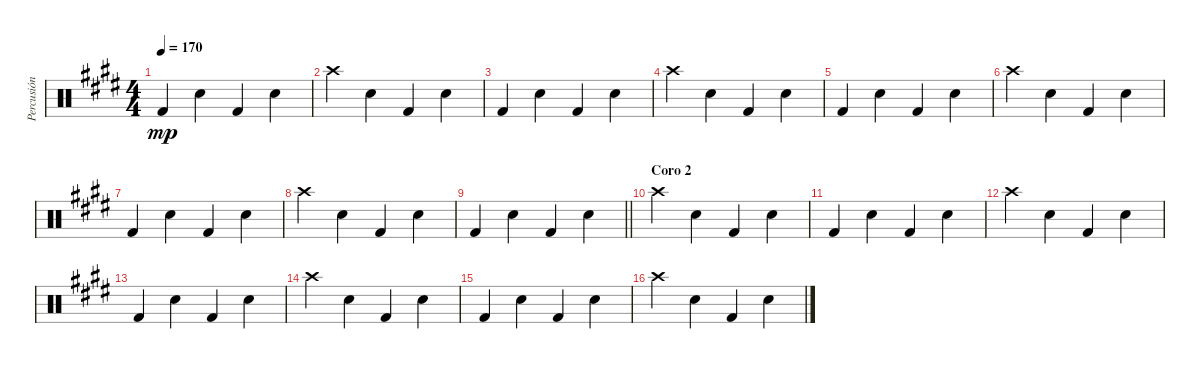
\track ("Percusión" "Percusión") {instrument percussion}
\staff {score}
\articulation defaults
\ts (4 4)
\tempo 170
\clef neutral
\ks e "Kick (hit) 2".4{dy mp} "Snare (hit) 2".4 "Kick (hit) 2".4 "Snare (hit) 2".4
|
"Crash high (hit)".4 "Snare (hit) 2".4 "Kick (hit) 2".4 "Snare (hit) 2".4 |
"Kick (hit) 2".4 "Snare (hit) 2".4 "Kick (hit) 2".4 "Snare (hit) 2".4 |
"Crash high (hit)".4 "Snare (hit) 2".4 "Kick (hit) 2".4 "Snare (hit) 2".4 |
"Kick (hit) 2".4 "Snare (hit) 2".4 "Kick (hit) 2".4 "Snare (hit) 2".4 |
"Crash high (hit)".4 "Snare (hit) 2".4 "Kick (hit) 2".4 "Snare (hit) 2".4 |
"Kick (hit) 2".4 "Snare (hit) 2".4 "Kick (hit) 2".4 "Snare (hit) 2".4 |
"Crash high (hit)".4 "Snare (hit) 2".4 "Kick (hit) 2".4 "Snare (hit) 2".4 |
\barLineRight lightlight "Kick (hit) 2".4 "Snare (hit) 2".4 "Kick (hit) 2".4 "Snare (hit) 2".4
|
\section ("" "Coro 2")
"Crash high (hit)".4 "Snare (hit) 2".4 "Kick (hit) 2".4 "Snare (hit) 2".4 |
"Kick (hit) 2".4 "Snare (hit) 2".4 "Kick (hit) 2".4 "Snare (hit) 2".4 |
"Crash high (hit)".4 "Snare (hit) 2".4 "Kick (hit) 2".4 "Snare (hit) 2".4 |
"Kick (hit) 2".4 "Snare (hit) 2".4 "Kick (hit) 2".4 "Snare (hit) 2".4 |
"Crash high (hit)".4 "Snare (hit) 2".4 "Kick (hit) 2".4 "Snare (hit) 2".4 |
"Kick (hit) 2".4 "Snare (hit) 2".4 "Kick (hit) 2".4 "Snare (hit) 2".4 |
"Crash high (hit)".4 "Snare (hit) 2".4 "Kick (hit) 2".4 "Snare (hit) 2".4
